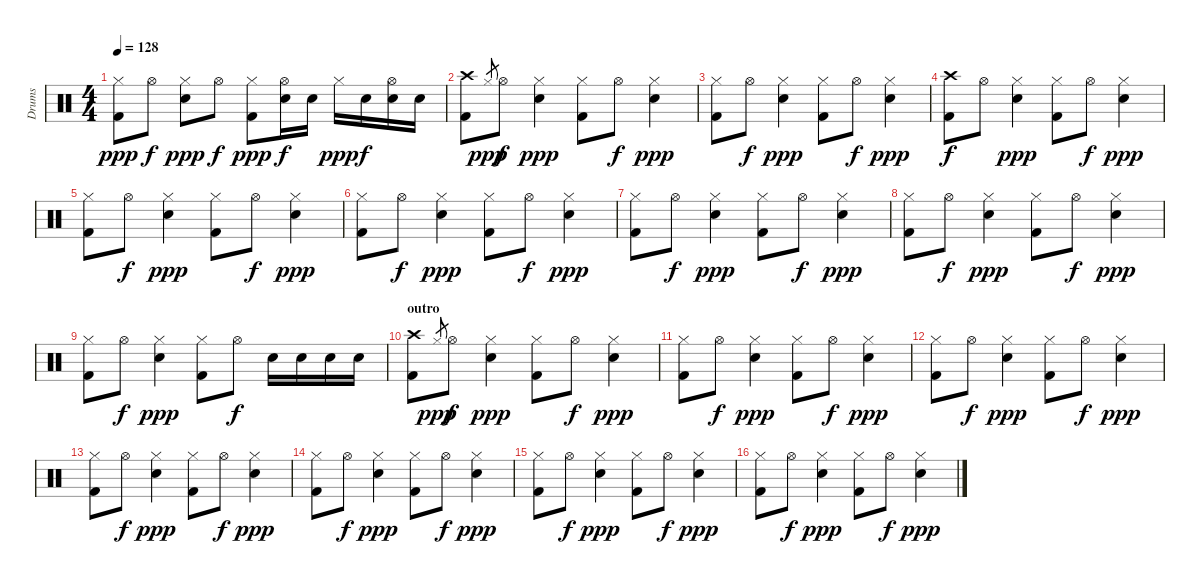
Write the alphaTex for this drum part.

\track ("Drums" "Drums") {instrument percussion}
\staff {score}
\articulation defaults
\ts (4 4)
\tempo 128
\clef neutral
\ks c
("Hi-Hat (closed)" "Kick (hit) 2").8{dy ppp} "Hi-Hat (open)".8{dy f} ("Hi-Hat (closed)" "Snare (hit) 2").8{dy ppp} "Hi-Hat (open)".8{dy f} ("Hi-Hat (closed)" "Kick (hit) 2").8{dy ppp} ("Hi-Hat (open)" "Snare (hit) 2").16{dy f} "Snare (hit) 2".16 "Hi-Hat (closed)".16{dy ppp} "Snare (hit) 2".16{dy f} ("Hi-Hat (open)" "Snare (hit) 2").16 "Snare (hit) 2".16 |
("Crash high (hit)" "Kick (hit) 2").8 "Hi-Hat (closed)".8{gr dy ppp} "Hi-Hat (open)".8{dy f} ("Hi-Hat (closed)" "Snare (hit) 2").4{dy ppp} ("Hi-Hat (closed)" "Kick (hit) 2").8 "Hi-Hat (open)".8{dy f} ("Hi-Hat (closed)" "Snare (hit) 2").4{dy ppp} |
("Hi-Hat (closed)" "Kick (hit) 2").8 "Hi-Hat (open)".8{dy f} ("Hi-Hat (closed)" "Snare (hit) 2").4{dy ppp} ("Hi-Hat (closed)" "Kick (hit) 2").8 "Hi-Hat (open)".8{dy f} ("Hi-Hat (closed)" "Snare (hit) 2").4{dy ppp} |
("Crash high (hit)" "Kick (hit) 2").8{dy f} "Hi-Hat (open)".8 ("Hi-Hat (closed)" "Snare (hit) 2").4{dy ppp} ("Hi-Hat (closed)" "Kick (hit) 2").8 "Hi-Hat (open)".8{dy f} ("Hi-Hat (closed)" "Snare (hit) 2").4{dy ppp} |
("Hi-Hat (closed)" "Kick (hit) 2").8 "Hi-Hat (open)".8{dy f} ("Hi-Hat (closed)" "Snare (hit) 2").4{dy ppp} ("Hi-Hat (closed)" "Kick (hit) 2").8 "Hi-Hat (open)".8{dy f} ("Hi-Hat (closed)" "Snare (hit) 2").4{dy ppp} |
("Hi-Hat (closed)" "Kick (hit) 2").8 "Hi-Hat (open)".8{dy f} ("Hi-Hat (closed)" "Snare (hit) 2").4{dy ppp} ("Hi-Hat (closed)" "Kick (hit) 2").8 "Hi-Hat (open)".8{dy f} ("Hi-Hat (closed)" "Snare (hit) 2").4{dy ppp} |
("Hi-Hat (closed)" "Kick (hit) 2").8 "Hi-Hat (open)".8{dy f} ("Hi-Hat (closed)" "Snare (hit) 2").4{dy ppp} ("Hi-Hat (closed)" "Kick (hit) 2").8 "Hi-Hat (open)".8{dy f} ("Hi-Hat (closed)" "Snare (hit) 2").4{dy ppp} |
("Hi-Hat (closed)" "Kick (hit) 2").8 "Hi-Hat (open)".8{dy f} ("Hi-Hat (closed)" "Snare (hit) 2").4{dy ppp} ("Hi-Hat (closed)" "Kick (hit) 2").8 "Hi-Hat (open)".8{dy f} ("Hi-Hat (closed)" "Snare (hit) 2").4{dy ppp} |
("Hi-Hat (closed)" "Kick (hit) 2").8 "Hi-Hat (open)".8{dy f} ("Hi-Hat (closed)" "Snare (hit) 2").4{dy ppp} ("Hi-Hat (closed)" "Kick (hit) 2").8 "Hi-Hat (open)".8{dy f} "Snare (hit) 2".16 "Snare (hit) 2".16 "Snare (hit) 2".16 "Snare (hit) 2".16 |
\section ("" "outro")
("Crash high (hit)" "Kick (hit) 2").8 "Hi-Hat (closed)".8{gr dy ppp} "Hi-Hat (open)".8{dy f} ("Hi-Hat (closed)" "Snare (hit) 2").4{dy ppp} ("Hi-Hat (closed)" "Kick (hit) 2").8 "Hi-Hat (open)".8{dy f} ("Hi-Hat (closed)" "Snare (hit) 2").4{dy ppp} |
("Hi-Hat (closed)" "Kick (hit) 2").8 "Hi-Hat (open)".8{dy f} ("Hi-Hat (closed)" "Snare (hit) 2").4{dy ppp} ("Hi-Hat (closed)" "Kick (hit) 2").8 "Hi-Hat (open)".8{dy f} ("Hi-Hat (closed)" "Snare (hit) 2").4{dy ppp} |
("Hi-Hat (closed)" "Kick (hit) 2").8 "Hi-Hat (open)".8{dy f} ("Hi-Hat (closed)" "Snare (hit) 2").4{dy ppp} ("Hi-Hat (closed)" "Kick (hit) 2").8 "Hi-Hat (open)".8{dy f} ("Hi-Hat (closed)" "Snare (hit) 2").4{dy ppp} |
("Hi-Hat (closed)" "Kick (hit) 2").8 "Hi-Hat (open)".8{dy f} ("Hi-Hat (closed)" "Snare (hit) 2").4{dy ppp} ("Hi-Hat (closed)" "Kick (hit) 2").8 "Hi-Hat (open)".8{dy f} ("Hi-Hat (closed)" "Snare (hit) 2").4{dy ppp} |
("Hi-Hat (closed)" "Kick (hit) 2").8 "Hi-Hat (open)".8{dy f} ("Hi-Hat (closed)" "Snare (hit) 2").4{dy ppp} ("Hi-Hat (closed)" "Kick (hit) 2").8 "Hi-Hat (open)".8{dy f} ("Hi-Hat (closed)" "Snare (hit) 2").4{dy ppp} |
("Hi-Hat (closed)" "Kick (hit) 2").8 "Hi-Hat (open)".8{dy f} ("Hi-Hat (closed)" "Snare (hit) 2").4{dy ppp} ("Hi-Hat (closed)" "Kick (hit) 2").8 "Hi-Hat (open)".8{dy f} ("Hi-Hat (closed)" "Snare (hit) 2").4{dy ppp} |
("Hi-Hat (closed)" "Kick (hit) 2").8 "Hi-Hat (open)".8{dy f} ("Hi-Hat (closed)" "Snare (hit) 2").4{dy ppp} ("Hi-Hat (closed)" "Kick (hit) 2").8 "Hi-Hat (open)".8{dy f} ("Hi-Hat (closed)" "Snare (hit) 2").4{dy ppp}
